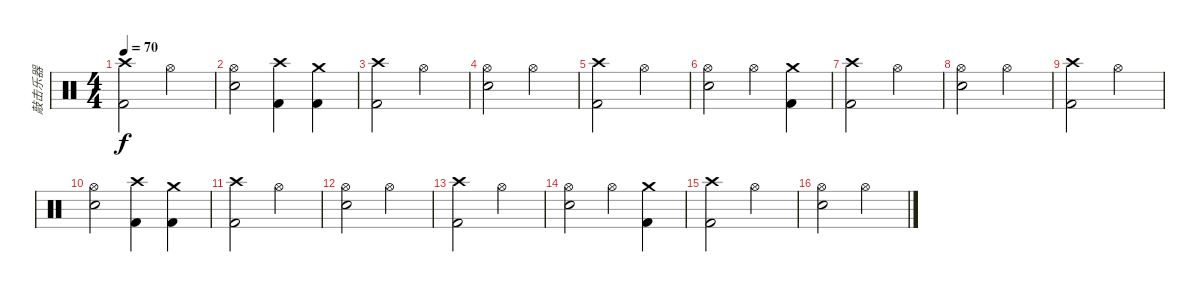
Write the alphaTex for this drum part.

\track ("敲击乐器" "敲击乐器") {instrument percussion}
\staff {score}
\articulation defaults
\ts (4 4)
\tempo 70
\clef neutral
\ks c
("Kick (hit) 2" "Crash high (hit)").2{dy f} "Hi-Hat (open)".2 |
("Hi-Hat (open)" "Snare (hit) 2").2 ("Kick (hit) 2" "Crash high (hit)").4 ("Kick (hit) 2" "Crash medium (hit)").4 |
("Kick (hit) 2" "Crash high (hit)").2 "Hi-Hat (open)".2 |
("Hi-Hat (open)" "Snare (hit) 2").2 "Hi-Hat (open)".2 |
("Kick (hit) 2" "Crash high (hit)").2 "Hi-Hat (open)".2 |
("Hi-Hat (open)" "Snare (hit) 2").2 "Hi-Hat (open)".4 ("Kick (hit) 2" "Crash medium (hit)").4 |
("Kick (hit) 2" "Crash high (hit)").2 "Hi-Hat (open)".2 |
("Hi-Hat (open)" "Snare (hit) 2").2 "Hi-Hat (open)".2 |
("Kick (hit) 2" "Crash high (hit)").2 "Hi-Hat (open)".2 |
("Hi-Hat (open)" "Snare (hit) 2").2 ("Kick (hit) 2" "Crash high (hit)").4 ("Kick (hit) 2" "Crash medium (hit)").4 |
("Kick (hit) 2" "Crash high (hit)").2 "Hi-Hat (open)".2 |
("Hi-Hat (open)" "Snare (hit) 2").2 "Hi-Hat (open)".2 |
("Kick (hit) 2" "Crash high (hit)").2 "Hi-Hat (open)".2 |
("Hi-Hat (open)" "Snare (hit) 2").2 "Hi-Hat (open)".4 ("Kick (hit) 2" "Crash medium (hit)").4 |
("Kick (hit) 2" "Crash high (hit)").2 "Hi-Hat (open)".2 |
("Hi-Hat (open)" "Snare (hit) 2").2 "Hi-Hat (open)".2
